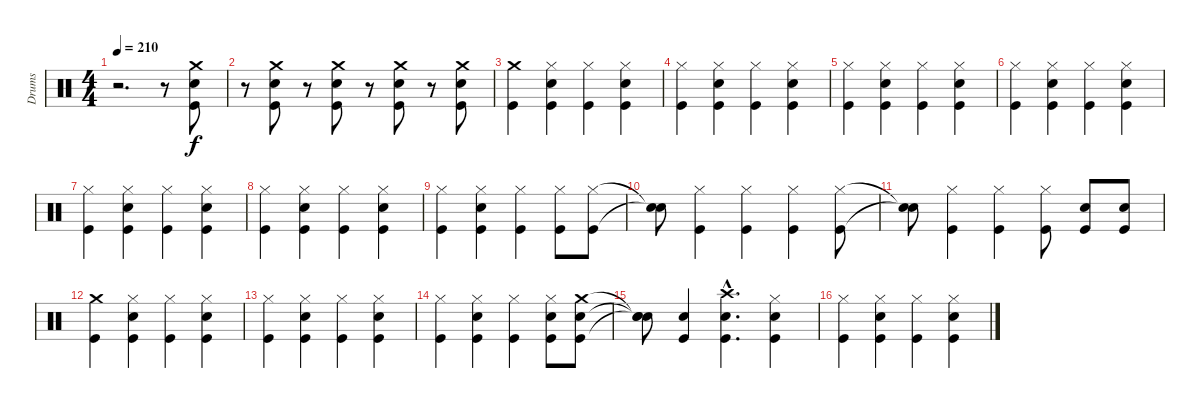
\track ("Drums" "Drums") {instrument percussion}
\staff {score}
\articulation defaults
\ts (4 4)
\tempo 210
\clef neutral
\ks c
r.2{d dy f} r.8 ("Crash medium (hit)" "Snare (hit) 2" "Kick (hit)").8 |
r.8 ("Crash medium (hit)" "Snare (hit) 2" "Kick (hit)").8 r.8 ("Crash medium (hit)" "Snare (hit) 2" "Kick (hit)").8 r.8 ("Crash medium (hit)" "Snare (hit) 2" "Kick (hit)").8 r.8 ("Crash medium (hit)" "Snare (hit) 2" "Kick (hit)").8 |
("Crash medium (hit)" "Kick (hit)").4 ("Hi-Hat (closed)" "Snare (hit) 2" "Kick (hit)").4 ("Hi-Hat (closed)" "Kick (hit)").4 ("Hi-Hat (closed)" "Snare (hit) 2" "Kick (hit)").4 |
("Hi-Hat (closed)" "Kick (hit)").4 ("Hi-Hat (closed)" "Snare (hit) 2" "Kick (hit)").4 ("Hi-Hat (closed)" "Kick (hit)").4 ("Hi-Hat (closed)" "Snare (hit) 2" "Kick (hit)").4 |
("Hi-Hat (closed)" "Kick (hit)").4 ("Hi-Hat (closed)" "Snare (hit) 2" "Kick (hit)").4 ("Hi-Hat (closed)" "Kick (hit)").4 ("Hi-Hat (closed)" "Snare (hit) 2" "Kick (hit)").4 |
("Hi-Hat (closed)" "Kick (hit)").4 ("Hi-Hat (closed)" "Snare (hit) 2" "Kick (hit)").4 ("Hi-Hat (closed)" "Kick (hit)").4 ("Hi-Hat (closed)" "Snare (hit) 2" "Kick (hit)").4 |
("Hi-Hat (closed)" "Kick (hit)").4 ("Hi-Hat (closed)" "Snare (hit) 2" "Kick (hit)").4 ("Hi-Hat (closed)" "Kick (hit)").4 ("Hi-Hat (closed)" "Snare (hit) 2" "Kick (hit)").4 |
("Hi-Hat (closed)" "Kick (hit)").4 ("Hi-Hat (closed)" "Snare (hit) 2" "Kick (hit)").4 ("Hi-Hat (closed)" "Kick (hit)").4 ("Hi-Hat (closed)" "Snare (hit) 2" "Kick (hit)").4 |
("Hi-Hat (closed)" "Kick (hit)").4 ("Hi-Hat (closed)" "Snare (hit) 2" "Kick (hit)").4 ("Hi-Hat (closed)" "Kick (hit)").4 ("Hi-Hat (closed)" "Kick (hit)").8 ("Hi-Hat (closed)" "Kick (hit)").8 |
("Snare (hit)"{t} "Snare (hit)"{t}).8 ("Hi-Hat (closed)" "Kick (hit)").4 ("Hi-Hat (closed)" "Kick (hit)").4 ("Hi-Hat (closed)" "Kick (hit)").4 ("Hi-Hat (closed)" "Kick (hit)").8 |
("Snare (hit)"{t} "Snare (hit)"{t}).8 ("Hi-Hat (closed)" "Kick (hit)").4 ("Hi-Hat (closed)" "Kick (hit)").4 ("Hi-Hat (closed)" "Kick (hit)").8 ("Snare (hit) 2" "Kick (hit)").8 ("Snare (hit) 2" "Kick (hit)").8 |
("Crash medium (hit)" "Kick (hit)").4 ("Hi-Hat (closed)" "Snare (hit) 2" "Kick (hit)").4 ("Hi-Hat (closed)" "Kick (hit)").4 ("Hi-Hat (closed)" "Snare (hit) 2" "Kick (hit)").4 |
("Hi-Hat (closed)" "Kick (hit)").4 ("Hi-Hat (closed)" "Snare (hit) 2" "Kick (hit)").4 ("Hi-Hat (closed)" "Kick (hit)").4 ("Hi-Hat (closed)" "Snare (hit) 2" "Kick (hit)").4 |
("Hi-Hat (closed)" "Kick (hit)").4 ("Hi-Hat (closed)" "Snare (hit) 2" "Kick (hit)").4 ("Hi-Hat (closed)" "Kick (hit)").4 ("Hi-Hat (closed)" "Snare (hit) 2" "Kick (hit)").8 ("Crash medium (hit)" "Snare (hit) 2" "Kick (hit)").8 |
("Snare (hit)"{t} "Snare (hit)"{t} "Snare (hit)"{t}).8 ("Snare (hit) 2" "Kick (hit)").4 ("Crash high (hit)"{hac} "Snare (hit) 2"{hac} "Kick (hit)"{hac}).4{d} ("Hi-Hat (closed)" "Snare (hit) 2" "Kick (hit)").4 |
("Hi-Hat (closed)" "Kick (hit)").4 ("Hi-Hat (closed)" "Snare (hit) 2" "Kick (hit)").4 ("Hi-Hat (closed)" "Kick (hit)").4 ("Hi-Hat (closed)" "Snare (hit) 2" "Kick (hit)").4
